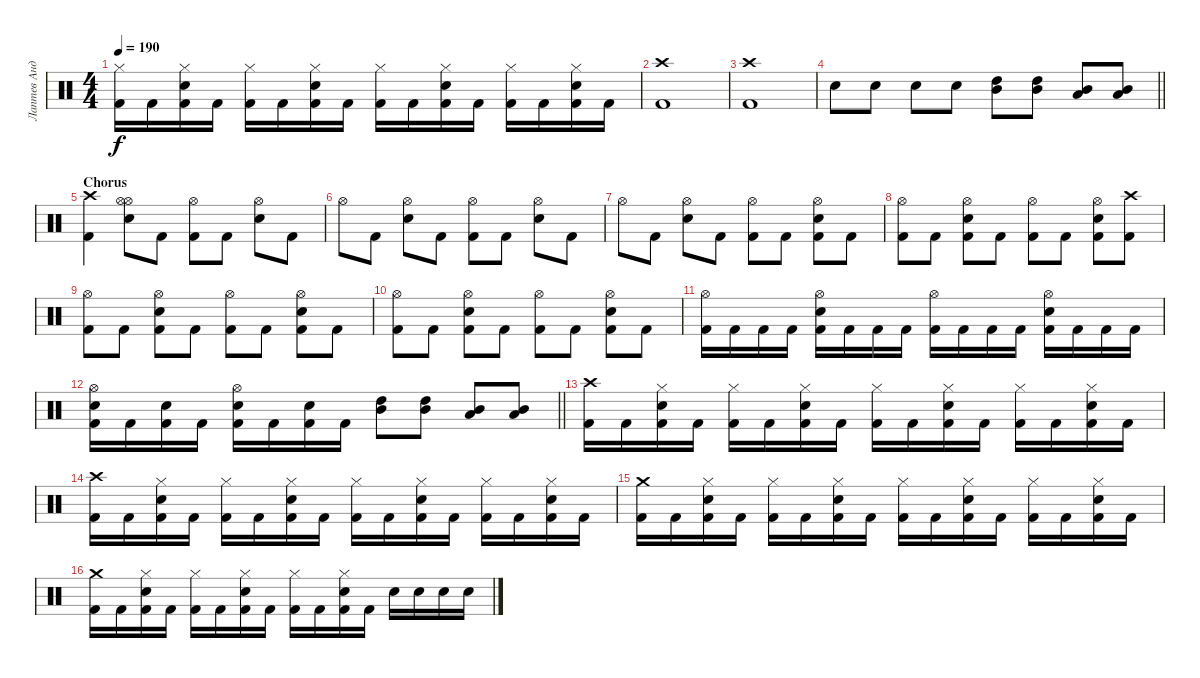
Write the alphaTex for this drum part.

\track ("Лаптев Андрей" "Лаптев Анд") {instrument percussion}
\staff {score}
\articulation defaults
\ts (4 4)
\tempo 190
\clef neutral
\ks c
("Hi-Hat (closed)" "Kick (hit) 2").16{dy f} "Kick (hit) 2".16 ("Electric Snare (hit)" "Hi-Hat (closed)" "Kick (hit) 2").16 "Kick (hit) 2".16 ("Hi-Hat (closed)" "Kick (hit) 2").16 "Kick (hit) 2".16 ("Electric Snare (hit)" "Hi-Hat (closed)" "Kick (hit) 2").16 "Kick (hit) 2".16 ("Hi-Hat (closed)" "Kick (hit) 2").16 "Kick (hit) 2".16 ("Hi-Hat (closed)" "Electric Snare (hit)" "Kick (hit) 2").16 "Kick (hit) 2".16 ("Hi-Hat (closed)" "Kick (hit) 2").16 "Kick (hit) 2".16 ("Hi-Hat (closed)" "Electric Snare (hit)" "Kick (hit) 2").16 "Kick (hit) 2".16 |
("Crash high (hit)" "Kick (hit) 2").1 |
("Crash high (hit)" "Kick (hit) 2").1 |
\barLineRight lightlight "Electric Snare (hit)".8 "Electric Snare (hit)".8 "Electric Snare (hit)".8 "Electric Snare (hit)".8
("Mid Tom (hit)" "High Tom (hit)").8 ("Mid Tom (hit)" "High Tom (hit)").8 ("Mid Tom (hit)" "Low Tom (hit)").8 ("Low Tom (hit)" "Mid Tom (hit)").8 |
\section ("" "Chorus")
("Crash high (hit)" "Kick (hit) 2").4 ("Hi-Hat (open)" "Hi-Hat (open)" "Electric Snare (hit)").8 "Kick (hit) 2".8 ("Hi-Hat (open)" "Kick (hit) 2").8 "Kick (hit) 2".8 ("Hi-Hat (open)" "Electric Snare (hit)").8 "Kick (hit) 2".8 |
"Hi-Hat (open)".8 "Kick (hit) 2".8 ("Electric Snare (hit)" "Hi-Hat (open)").8 "Kick (hit) 2".8 ("Hi-Hat (open)" "Kick (hit) 2").8 "Kick (hit) 2".8 ("Electric Snare (hit)" "Hi-Hat (open)").8 "Kick (hit) 2".8 |
"Hi-Hat (open)".8 "Kick (hit) 2".8 ("Electric Snare (hit)" "Hi-Hat (open)").8 "Kick (hit) 2".8 ("Hi-Hat (open)" "Kick (hit) 2").8 "Kick (hit) 2".8 ("Electric Snare (hit)" "Hi-Hat (open)" "Kick (hit) 2").8 "Kick (hit) 2".8 |
("Hi-Hat (open)" "Kick (hit) 2").8 "Kick (hit) 2".8 ("Electric Snare (hit)" "Hi-Hat (open)" "Kick (hit) 2").8 "Kick (hit) 2".8 ("Hi-Hat (open)" "Kick (hit) 2").8 "Kick (hit) 2".8 ("Hi-Hat (open)" "Electric Snare (hit)" "Kick (hit) 2").8 ("Crash high (hit)" "Kick (hit) 2").8 |
("Hi-Hat (open)" "Kick (hit) 2").8 "Kick (hit) 2".8 ("Electric Snare (hit)" "Hi-Hat (open)" "Kick (hit) 2").8 "Kick (hit) 2".8 ("Hi-Hat (open)" "Kick (hit) 2").8 "Kick (hit) 2".8 ("Hi-Hat (open)" "Electric Snare (hit)" "Kick (hit) 2").8 "Kick (hit) 2".8 |
("Hi-Hat (open)" "Kick (hit) 2").8 "Kick (hit) 2".8 ("Hi-Hat (open)" "Electric Snare (hit)" "Kick (hit) 2").8 "Kick (hit) 2".8 ("Hi-Hat (open)" "Kick (hit) 2").8 "Kick (hit) 2".8 ("Electric Snare (hit)" "Hi-Hat (open)" "Kick (hit) 2").8 "Kick (hit) 2".8 |
("Hi-Hat (open)" "Kick (hit) 2").16 "Kick (hit) 2".16 "Kick (hit) 2".16 "Kick (hit) 2".16 ("Electric Snare (hit)" "Hi-Hat (open)" "Kick (hit) 2").16 "Kick (hit) 2".16 "Kick (hit) 2".16 "Kick (hit) 2".16 ("Hi-Hat (open)" "Kick (hit) 2").16 "Kick (hit) 2".16 "Kick (hit) 2".16 "Kick (hit) 2".16 ("Hi-Hat (open)" "Electric Snare (hit)" "Kick (hit) 2").16 "Kick (hit) 2".16 "Kick (hit) 2".16 "Kick (hit) 2".16 |
\barLineRight lightlight
("Hi-Hat (open)" "Electric Snare (hit)" "Kick (hit) 2").16 "Kick (hit) 2".16 ("Electric Snare (hit)" "Kick (hit) 2").16 "Kick (hit) 2".16 ("Electric Snare (hit)" "Hi-Hat (open)" "Kick (hit) 2").16 "Kick (hit) 2".16 ("Electric Snare (hit)" "Kick (hit) 2").16 "Kick (hit) 2".16 ("Mid Tom (hit)" "High Tom (hit)").8 ("High Tom (hit)" "Mid Tom (hit)").8 ("Low Tom (hit)" "Mid Tom (hit)").8 ("Low Tom (hit)" "Mid Tom (hit)").8 |
("Crash high (hit)" "Kick (hit) 2").16 "Kick (hit) 2".16 ("Electric Snare (hit)" "Hi-Hat (closed)" "Kick (hit) 2").16 "Kick (hit) 2".16 ("Hi-Hat (closed)" "Kick (hit) 2").16 "Kick (hit) 2".16 ("Electric Snare (hit)" "Hi-Hat (closed)" "Kick (hit) 2").16 "Kick (hit) 2".16 ("Hi-Hat (closed)" "Kick (hit) 2").16 "Kick (hit) 2".16 ("Hi-Hat (closed)" "Electric Snare (hit)" "Kick (hit) 2").16 "Kick (hit) 2".16 ("Hi-Hat (closed)" "Kick (hit) 2").16 "Kick (hit) 2".16 ("Electric Snare (hit)" "Hi-Hat (closed)" "Kick (hit) 2").16 "Kick (hit) 2".16 |
("Crash high (hit)" "Kick (hit) 2").16 "Kick (hit) 2".16 ("Hi-Hat (closed)" "Electric Snare (hit)" "Kick (hit) 2").16 "Kick (hit) 2".16 ("Hi-Hat (closed)" "Kick (hit) 2").16 "Kick (hit) 2".16 ("Hi-Hat (closed)" "Electric Snare (hit)" "Kick (hit) 2").16 "Kick (hit) 2".16 ("Hi-Hat (closed)" "Kick (hit) 2").16 "Kick (hit) 2".16 ("Hi-Hat (closed)" "Electric Snare (hit)" "Kick (hit) 2").16 "Kick (hit) 2".16 ("Hi-Hat (closed)" "Kick (hit) 2").16 "Kick (hit) 2".16 ("Hi-Hat (closed)" "Electric Snare (hit)" "Kick (hit) 2").16 "Kick (hit) 2".16 |
("Crash medium (hit)" "Kick (hit) 2").16 "Kick (hit) 2".16 ("Hi-Hat (closed)" "Electric Snare (hit)" "Kick (hit) 2").16 "Kick (hit) 2".16 ("Hi-Hat (closed)" "Kick (hit) 2").16 "Kick (hit) 2".16 ("Hi-Hat (closed)" "Electric Snare (hit)" "Kick (hit) 2").16 "Kick (hit) 2".16 ("Hi-Hat (closed)" "Kick (hit) 2").16 "Kick (hit) 2".16 ("Hi-Hat (closed)" "Electric Snare (hit)" "Kick (hit) 2").16 "Kick (hit) 2".16 ("Hi-Hat (closed)" "Kick (hit) 2").16 "Kick (hit) 2".16 ("Hi-Hat (closed)" "Electric Snare (hit)" "Kick (hit) 2").16 "Kick (hit) 2".16 |
("Crash medium (hit)" "Kick (hit) 2").16 "Kick (hit) 2".16 ("Hi-Hat (closed)" "Electric Snare (hit)" "Kick (hit) 2").16 "Kick (hit) 2".16 ("Hi-Hat (closed)" "Kick (hit) 2").16 "Kick (hit) 2".16 ("Hi-Hat (closed)" "Electric Snare (hit)" "Kick (hit) 2").16 "Kick (hit) 2".16 ("Hi-Hat (closed)" "Kick (hit) 2").16 "Kick (hit) 2".16 ("Electric Snare (hit)" "Hi-Hat (closed)" "Kick (hit) 2").16 "Kick (hit) 2".16 "Electric Snare (hit)".16 "Electric Snare (hit)".16 "Electric Snare (hit)".16 "Electric Snare (hit)".16
